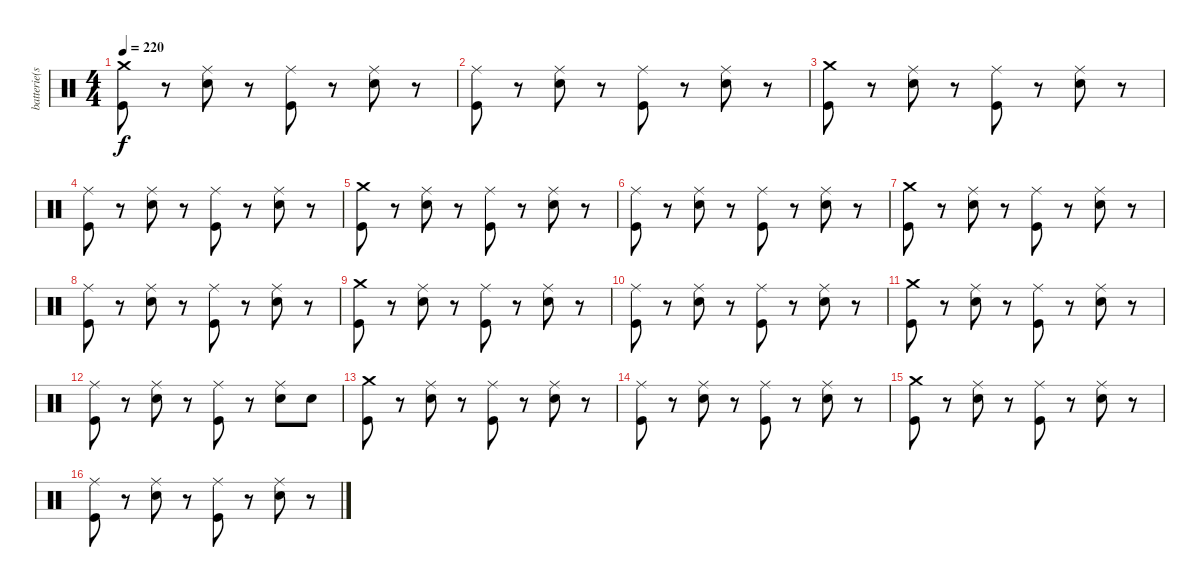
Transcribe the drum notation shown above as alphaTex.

\track ("batterie(scott)" "batterie(s") {instrument percussion}
\staff {score}
\articulation defaults
\ts (4 4)
\tempo 220
\clef neutral
\ks c
("Crash medium (hit)" "Kick (hit)").8{dy f} r.8 ("Ride (middle)" "Snare (hit) 2").8 r.8 ("Ride (middle)" "Kick (hit)").8 r.8 ("Ride (middle)" "Snare (hit) 2").8 r.8 |
("Ride (middle)" "Kick (hit)").8 r.8 ("Ride (middle)" "Snare (hit) 2").8 r.8 ("Ride (middle)" "Kick (hit)").8 r.8 ("Ride (middle)" "Snare (hit) 2").8 r.8 |
("Crash medium (hit)" "Kick (hit)").8 r.8 ("Ride (middle)" "Snare (hit) 2").8 r.8 ("Ride (middle)" "Kick (hit)").8 r.8 ("Ride (middle)" "Snare (hit) 2").8 r.8 |
("Ride (middle)" "Kick (hit)").8 r.8 ("Ride (middle)" "Snare (hit) 2").8 r.8 ("Ride (middle)" "Kick (hit)").8 r.8 ("Ride (middle)" "Snare (hit) 2").8 r.8 |
("Crash medium (hit)" "Kick (hit)").8 r.8 ("Ride (middle)" "Snare (hit) 2").8 r.8 ("Ride (middle)" "Kick (hit)").8 r.8 ("Ride (middle)" "Snare (hit) 2").8 r.8 |
("Ride (middle)" "Kick (hit)").8 r.8 ("Ride (middle)" "Snare (hit) 2").8 r.8 ("Ride (middle)" "Kick (hit)").8 r.8 ("Ride (middle)" "Snare (hit) 2").8 r.8 |
("Crash medium (hit)" "Kick (hit)").8 r.8 ("Ride (middle)" "Snare (hit) 2").8 r.8 ("Ride (middle)" "Kick (hit)").8 r.8 ("Ride (middle)" "Snare (hit) 2").8 r.8 |
("Ride (middle)" "Kick (hit)").8 r.8 ("Ride (middle)" "Snare (hit) 2").8 r.8 ("Ride (middle)" "Kick (hit)").8 r.8 ("Ride (middle)" "Snare (hit) 2").8 r.8 |
("Crash medium (hit)" "Kick (hit)").8 r.8 ("Ride (middle)" "Snare (hit) 2").8 r.8 ("Ride (middle)" "Kick (hit)").8 r.8 ("Ride (middle)" "Snare (hit) 2").8 r.8 |
("Ride (middle)" "Kick (hit)").8 r.8 ("Ride (middle)" "Snare (hit) 2").8 r.8 ("Ride (middle)" "Kick (hit)").8 r.8 ("Ride (middle)" "Snare (hit) 2").8 r.8 |
("Crash medium (hit)" "Kick (hit)").8 r.8 ("Ride (middle)" "Snare (hit) 2").8 r.8 ("Ride (middle)" "Kick (hit)").8 r.8 ("Ride (middle)" "Snare (hit) 2").8 r.8 |
("Ride (middle)" "Kick (hit)").8 r.8 ("Ride (middle)" "Snare (hit) 2").8 r.8 ("Ride (middle)" "Kick (hit)").8 r.8 ("Ride (middle)" "Snare (hit) 2").8 "Snare (hit) 2".8 |
("Crash medium (hit)" "Kick (hit)").8 r.8 ("Ride (middle)" "Snare (hit) 2").8 r.8 ("Ride (middle)" "Kick (hit)").8 r.8 ("Ride (middle)" "Snare (hit) 2").8 r.8 |
("Ride (middle)" "Kick (hit)").8 r.8 ("Ride (middle)" "Snare (hit) 2").8 r.8 ("Ride (middle)" "Kick (hit)").8 r.8 ("Ride (middle)" "Snare (hit) 2").8 r.8 |
("Crash medium (hit)" "Kick (hit)").8 r.8 ("Ride (middle)" "Snare (hit) 2").8 r.8 ("Ride (middle)" "Kick (hit)").8 r.8 ("Ride (middle)" "Snare (hit) 2").8 r.8 |
("Ride (middle)" "Kick (hit)").8 r.8 ("Ride (middle)" "Snare (hit) 2").8 r.8 ("Ride (middle)" "Kick (hit)").8 r.8 ("Ride (middle)" "Snare (hit) 2").8 r.8
